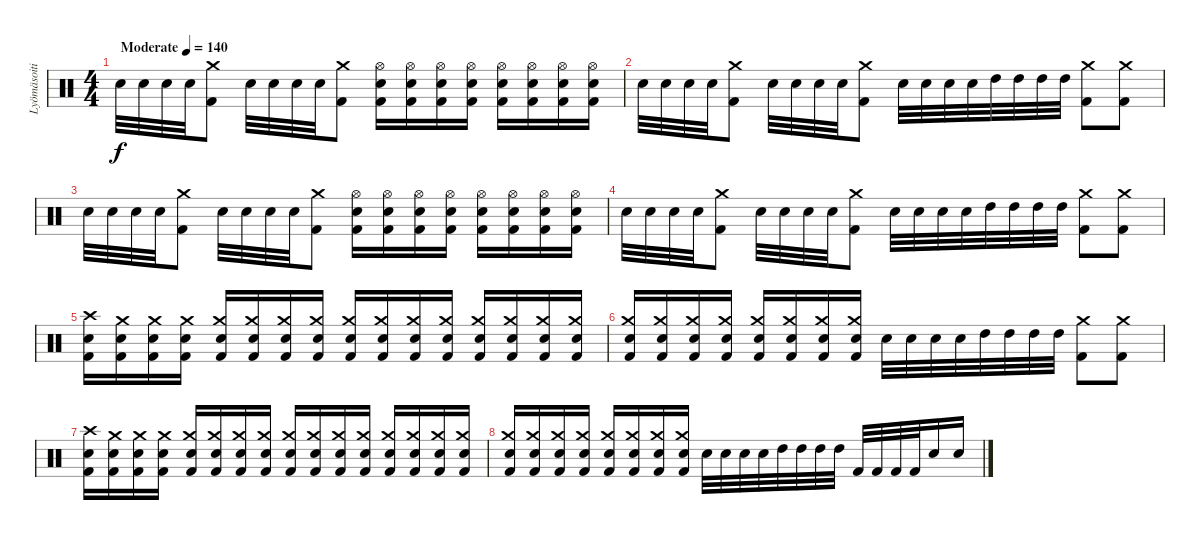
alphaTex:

\track ("Lyömäsoitin" "Lyömäsoiti") {instrument percussion}
\staff {score}
\articulation defaults
\ts (4 4)
\tempo (140 "Moderate")
\clef neutral
\ks c "Snare (hit) 2".32{dy f} "Snare (hit) 2".32 "Snare (hit) 2".32 "Snare (hit) 2".32
("Crash medium (hit)" "Kick (hit) 2").8 "Snare (hit) 2".32 "Snare (hit) 2".32 "Snare (hit) 2".32 "Snare (hit) 2".32 ("Crash medium (hit)" "Kick (hit) 2").8 ("Hi-Hat (open)" "Snare (hit) 2" "Kick (hit) 2").16 ("Hi-Hat (open)" "Snare (hit) 2" "Kick (hit) 2").16 ("Hi-Hat (open)" "Snare (hit) 2" "Kick (hit) 2").16 ("Hi-Hat (open)" "Snare (hit) 2" "Kick (hit) 2").16 ("Hi-Hat (open)" "Snare (hit) 2" "Kick (hit) 2").16 ("Hi-Hat (open)" "Snare (hit) 2" "Kick (hit) 2").16 ("Hi-Hat (open)" "Snare (hit) 2" "Kick (hit) 2").16 ("Hi-Hat (open)" "Snare (hit) 2" "Kick (hit) 2").16 |
"Snare (hit) 2".32 "Snare (hit) 2".32 "Snare (hit) 2".32 "Snare (hit) 2".32 ("Crash medium (hit)" "Kick (hit) 2").8 "Snare (hit) 2".32 "Snare (hit) 2".32 "Snare (hit) 2".32 "Snare (hit) 2".32 ("Crash medium (hit)" "Kick (hit) 2").8 "Snare (hit) 2".32 "Snare (hit) 2".32 "Snare (hit) 2".32 "Snare (hit) 2".32 "High Tom (hit)".32 "High Tom (hit)".32 "High Tom (hit)".32 "High Tom (hit)".32 ("Crash medium (hit)" "Kick (hit) 2").8 ("Crash medium (hit)" "Kick (hit) 2").8 |
"Snare (hit) 2".32 "Snare (hit) 2".32 "Snare (hit) 2".32 "Snare (hit) 2".32 ("Crash medium (hit)" "Kick (hit) 2").8 "Snare (hit) 2".32 "Snare (hit) 2".32 "Snare (hit) 2".32 "Snare (hit) 2".32 ("Crash medium (hit)" "Kick (hit) 2").8 ("Hi-Hat (open)" "Snare (hit) 2" "Kick (hit) 2").16 ("Hi-Hat (open)" "Snare (hit) 2" "Kick (hit) 2").16 ("Hi-Hat (open)" "Snare (hit) 2" "Kick (hit) 2").16 ("Hi-Hat (open)" "Snare (hit) 2" "Kick (hit) 2").16 ("Hi-Hat (open)" "Snare (hit) 2" "Kick (hit) 2").16 ("Hi-Hat (open)" "Snare (hit) 2" "Kick (hit) 2").16 ("Hi-Hat (open)" "Snare (hit) 2" "Kick (hit) 2").16 ("Hi-Hat (open)" "Snare (hit) 2" "Kick (hit) 2").16 |
"Snare (hit) 2".32 "Snare (hit) 2".32 "Snare (hit) 2".32 "Snare (hit) 2".32 ("Crash medium (hit)" "Kick (hit) 2").8 "Snare (hit) 2".32 "Snare (hit) 2".32 "Snare (hit) 2".32 "Snare (hit) 2".32 ("Crash medium (hit)" "Kick (hit) 2").8 "Snare (hit) 2".32 "Snare (hit) 2".32 "Snare (hit) 2".32 "Snare (hit) 2".32 "High Tom (hit)".32 "High Tom (hit)".32 "High Tom (hit)".32 "High Tom (hit)".32 ("Crash medium (hit)" "Kick (hit) 2").8 ("Crash medium (hit)" "Kick (hit) 2").8 |
("Crash high (hit)" "Snare (hit) 2" "Kick (hit) 2").16 ("Crash medium (hit)" "Snare (hit) 2" "Kick (hit) 2").16 ("Crash medium (hit)" "Snare (hit) 2" "Kick (hit) 2").16 ("Crash medium (hit)" "Snare (hit) 2" "Kick (hit) 2").16 ("Crash medium (hit)" "Snare (hit) 2" "Kick (hit) 2").16 ("Crash medium (hit)" "Snare (hit) 2" "Kick (hit) 2").16 ("Crash medium (hit)" "Snare (hit) 2" "Kick (hit) 2").16 ("Crash medium (hit)" "Snare (hit) 2" "Kick (hit) 2").16 ("Crash medium (hit)" "Snare (hit) 2" "Kick (hit) 2").16 ("Crash medium (hit)" "Snare (hit) 2" "Kick (hit) 2").16 ("Crash medium (hit)" "Snare (hit) 2" "Kick (hit) 2").16 ("Crash medium (hit)" "Snare (hit) 2" "Kick (hit) 2").16 ("Crash medium (hit)" "Snare (hit) 2" "Kick (hit) 2").16 ("Crash medium (hit)" "Snare (hit) 2" "Kick (hit) 2").16 ("Crash medium (hit)" "Snare (hit) 2" "Kick (hit) 2").16 ("Crash medium (hit)" "Snare (hit) 2" "Kick (hit) 2").16 |
("Crash medium (hit)" "Snare (hit) 2" "Kick (hit) 2").16 ("Crash medium (hit)" "Snare (hit) 2" "Kick (hit) 2").16 ("Crash medium (hit)" "Snare (hit) 2" "Kick (hit) 2").16 ("Crash medium (hit)" "Snare (hit) 2" "Kick (hit) 2").16 ("Crash medium (hit)" "Snare (hit) 2" "Kick (hit) 2").16 ("Crash medium (hit)" "Snare (hit) 2" "Kick (hit) 2").16 ("Crash medium (hit)" "Snare (hit) 2" "Kick (hit) 2").16 ("Crash medium (hit)" "Snare (hit) 2" "Kick (hit) 2").16 "Snare (hit) 2".32 "Snare (hit) 2".32 "Snare (hit) 2".32 "Snare (hit) 2".32 "High Tom (hit)".32 "High Tom (hit)".32 "High Tom (hit)".32 "High Tom (hit)".32 ("Crash medium (hit)" "Kick (hit) 2").8 ("Crash medium (hit)" "Kick (hit) 2").8 |
("Crash high (hit)" "Snare (hit) 2" "Kick (hit) 2").16 ("Crash medium (hit)" "Snare (hit) 2" "Kick (hit) 2").16 ("Crash medium (hit)" "Snare (hit) 2" "Kick (hit) 2").16 ("Crash medium (hit)" "Snare (hit) 2" "Kick (hit) 2").16 ("Crash medium (hit)" "Snare (hit) 2" "Kick (hit) 2").16 ("Crash medium (hit)" "Snare (hit) 2" "Kick (hit) 2").16 ("Crash medium (hit)" "Snare (hit) 2" "Kick (hit) 2").16 ("Crash medium (hit)" "Snare (hit) 2" "Kick (hit) 2").16 ("Crash medium (hit)" "Snare (hit) 2" "Kick (hit) 2").16 ("Crash medium (hit)" "Snare (hit) 2" "Kick (hit) 2").16 ("Crash medium (hit)" "Snare (hit) 2" "Kick (hit) 2").16 ("Crash medium (hit)" "Snare (hit) 2" "Kick (hit) 2").16 ("Crash medium (hit)" "Snare (hit) 2" "Kick (hit) 2").16 ("Crash medium (hit)" "Snare (hit) 2" "Kick (hit) 2").16 ("Crash medium (hit)" "Snare (hit) 2" "Kick (hit) 2").16 ("Crash medium (hit)" "Snare (hit) 2" "Kick (hit) 2").16 |
("Crash medium (hit)" "Snare (hit) 2" "Kick (hit) 2").16 ("Crash medium (hit)" "Snare (hit) 2" "Kick (hit) 2").16 ("Crash medium (hit)" "Snare (hit) 2" "Kick (hit) 2").16 ("Crash medium (hit)" "Snare (hit) 2" "Kick (hit) 2").16 ("Crash medium (hit)" "Snare (hit) 2" "Kick (hit) 2").16 ("Crash medium (hit)" "Snare (hit) 2" "Kick (hit) 2").16 ("Crash medium (hit)" "Snare (hit) 2" "Kick (hit) 2").16 ("Crash medium (hit)" "Snare (hit) 2" "Kick (hit) 2").16 "Snare (hit) 2".32 "Snare (hit) 2".32 "Snare (hit) 2".32 "Snare (hit) 2".32 "High Tom (hit)".32 "High Tom (hit)".32 "High Tom (hit)".32 "High Tom (hit)".32 "Kick (hit) 2".32 "Kick (hit) 2".32 "Kick (hit) 2".32 "Kick (hit) 2".32 "Snare (hit) 2".16 "Snare (hit) 2".16
